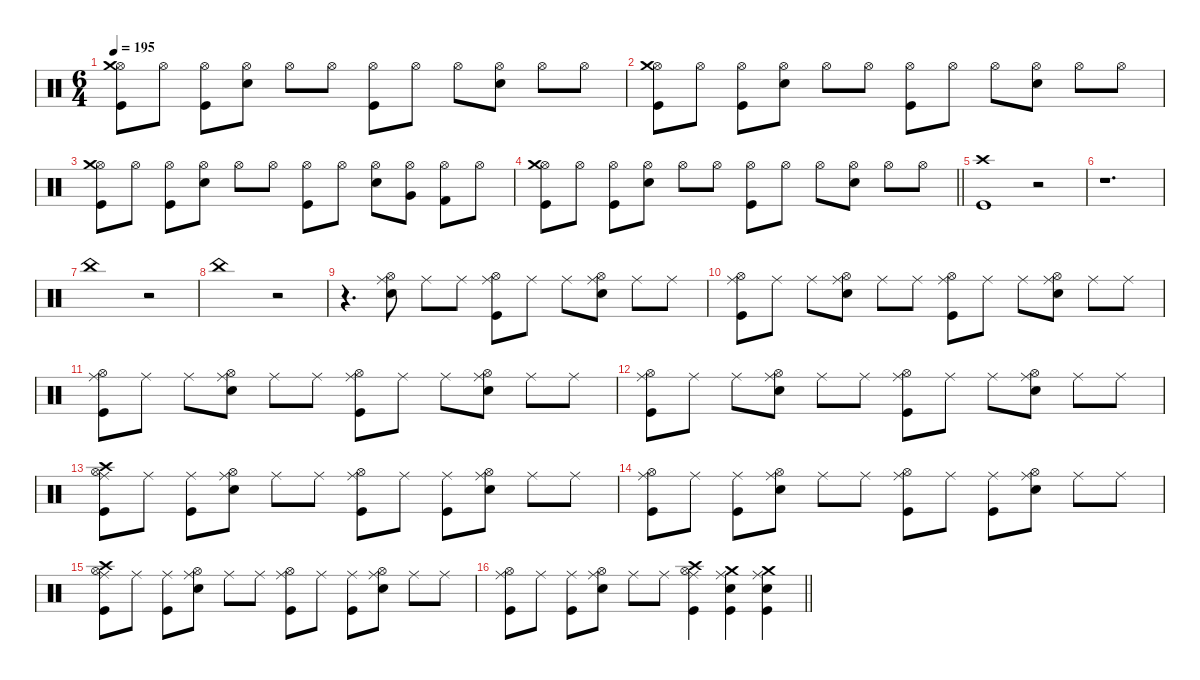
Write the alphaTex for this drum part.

\defaultSystemsLayout 4
\hideDynamics
\bracketExtendMode nobrackets
\singleTrackTrackNamePolicy hidden
\multiTrackTrackNamePolicy hidden
\firstSystemTrackNameMode fullname
\firstSystemTrackNameOrientation horizontal
\otherSystemsTrackNameOrientation horizontal
\track ("Percussion" "drm.") {defaultSystemsLayout 4 instrument percussion}
\staff {score}
\articulation defaults
\ts (6 4)
\tempo 195
\clef neutral
\ks c
("Hi-Hat (open)" "Crash medium (hit)" "Kick (hit)").8{dy f beam Down} "Hi-Hat (open)".8{beam Down} ("Hi-Hat (open)" "Kick (hit)").8{beam Down} ("Hi-Hat (open)" "Snare (hit) 2").8{beam Down} "Hi-Hat (open)".8{beam Down} "Hi-Hat (open)".8{beam Down} ("Hi-Hat (open)" "Kick (hit)").8{beam Down} "Hi-Hat (open)".8{beam Down} "Hi-Hat (open)".8{beam Down} ("Hi-Hat (open)" "Snare (hit) 2").8{beam Down} "Hi-Hat (open)".8{beam Down} "Hi-Hat (open)".8{beam Down} |
("Hi-Hat (open)" "Crash medium (hit)" "Kick (hit)").8{beam Down} "Hi-Hat (open)".8{beam Down} ("Hi-Hat (open)" "Kick (hit)").8{beam Down} ("Hi-Hat (open)" "Snare (hit) 2").8{beam Down} "Hi-Hat (open)".8{beam Down} "Hi-Hat (open)".8{beam Down} ("Hi-Hat (open)" "Kick (hit)").8{beam Down} "Hi-Hat (open)".8{beam Down} "Hi-Hat (open)".8{beam Down} ("Hi-Hat (open)" "Snare (hit) 2").8{beam Down} "Hi-Hat (open)".8{beam Down} "Hi-Hat (open)".8{beam Down} |
("Hi-Hat (open)" "Crash medium (hit)" "Kick (hit)").8{beam Down} "Hi-Hat (open)".8{beam Down} ("Hi-Hat (open)" "Kick (hit)").8{beam Down} ("Hi-Hat (open)" "Snare (hit) 2").8{beam Down} "Hi-Hat (open)".8{beam Down} "Hi-Hat (open)".8{beam Down} ("Hi-Hat (open)" "Kick (hit)").8{beam Down} "Hi-Hat (open)".8{beam Down} ("Hi-Hat (open)" "Snare (hit) 2").8{beam Down} ("Hi-Hat (open)" "Very Low Tom (hit)").8{beam Down} ("Hi-Hat (open)" "Kick (hit) 2").8{beam Down} "Hi-Hat (open)".8{beam Down} |
\barLineRight lightlight
("Hi-Hat (open)" "Crash medium (hit)" "Kick (hit)").8{beam Down} "Hi-Hat (open)".8{beam Down} ("Hi-Hat (open)" "Kick (hit)").8{beam Down} ("Hi-Hat (open)" "Snare (hit) 2").8{beam Down} "Hi-Hat (open)".8{beam Down} "Hi-Hat (open)".8{beam Down} ("Hi-Hat (open)" "Kick (hit)").8{beam Down} "Hi-Hat (open)".8{beam Down} "Hi-Hat (open)".8{beam Down} ("Hi-Hat (open)" "Snare (hit) 2").8{beam Down} "Hi-Hat (open)".8{beam Down} "Hi-Hat (open)".8{beam Down} |
("Crash high (hit)" "Kick (hit)").1{beam Down} r.2{beam Down} |
r.1{d beam Down} |
"China (hit)".1{beam Down} r.2{beam Down} |
"China (hit)".1{beam Down} r.2{beam Down} |
r.4{d beam Down} ("Hi-Hat (open)" "Ride (middle)" "Snare (hit) 2").8{beam Down} "Ride (middle)".8{beam Down} "Ride (middle)".8{beam Down} ("Hi-Hat (open)" "Ride (middle)" "Kick (hit)").8{beam Down} "Ride (middle)".8{beam Down} "Ride (middle)".8{beam Down} ("Hi-Hat (open)" "Ride (middle)" "Snare (hit) 2").8{beam Down} "Ride (middle)".8{beam Down} "Ride (middle)".8{beam Down} |
("Hi-Hat (open)" "Ride (middle)" "Kick (hit)").8{beam Down} "Ride (middle)".8{beam Down} "Ride (middle)".8{beam Down} ("Hi-Hat (open)" "Ride (middle)" "Snare (hit) 2").8{beam Down} "Ride (middle)".8{beam Down} "Ride (middle)".8{beam Down} ("Hi-Hat (open)" "Ride (middle)" "Kick (hit)").8{beam Down} "Ride (middle)".8{beam Down} "Ride (middle)".8{beam Down} ("Hi-Hat (open)" "Ride (middle)" "Snare (hit) 2").8{beam Down} "Ride (middle)".8{beam Down} "Ride (middle)".8{beam Down} |
("Hi-Hat (open)" "Ride (middle)" "Kick (hit)").8{beam Down} "Ride (middle)".8{beam Down} "Ride (middle)".8{beam Down} ("Hi-Hat (open)" "Ride (middle)" "Snare (hit) 2").8{beam Down} "Ride (middle)".8{beam Down} "Ride (middle)".8{beam Down} ("Hi-Hat (open)" "Ride (middle)" "Kick (hit)").8{beam Down} "Ride (middle)".8{beam Down} "Ride (middle)".8{beam Down} ("Hi-Hat (open)" "Ride (middle)" "Snare (hit) 2").8{beam Down} "Ride (middle)".8{beam Down} "Ride (middle)".8{beam Down} |
("Hi-Hat (open)" "Ride (middle)" "Kick (hit)").8{beam Down} "Ride (middle)".8{beam Down} "Ride (middle)".8{beam Down} ("Hi-Hat (open)" "Ride (middle)" "Snare (hit) 2").8{beam Down} "Ride (middle)".8{beam Down} "Ride (middle)".8{beam Down} ("Hi-Hat (open)" "Ride (middle)" "Kick (hit)").8{beam Down} "Ride (middle)".8{beam Down} "Ride (middle)".8{beam Down} ("Hi-Hat (open)" "Ride (middle)" "Snare (hit) 2").8{beam Down} "Ride (middle)".8{beam Down} "Ride (middle)".8{beam Down} |
("Hi-Hat (open)" "Ride (middle)" "Crash high (hit)" "Kick (hit)").8{beam Down} "Ride (middle)".8{beam Down} ("Ride (middle)" "Kick (hit)").8{beam Down} ("Hi-Hat (open)" "Ride (middle)" "Snare (hit) 2").8{beam Down} "Ride (middle)".8{beam Down} "Ride (middle)".8{beam Down} ("Hi-Hat (open)" "Ride (middle)" "Kick (hit)").8{beam Down} "Ride (middle)".8{beam Down} ("Ride (middle)" "Kick (hit)").8{beam Down} ("Hi-Hat (open)" "Ride (middle)" "Snare (hit) 2").8{beam Down} "Ride (middle)".8{beam Down} "Ride (middle)".8{beam Down} |
("Hi-Hat (open)" "Ride (middle)" "Kick (hit)").8{beam Down} "Ride (middle)".8{beam Down} ("Ride (middle)" "Kick (hit)").8{beam Down} ("Hi-Hat (open)" "Ride (middle)" "Snare (hit) 2").8{beam Down} "Ride (middle)".8{beam Down} "Ride (middle)".8{beam Down} ("Hi-Hat (open)" "Ride (middle)" "Kick (hit)").8{beam Down} "Ride (middle)".8{beam Down} ("Ride (middle)" "Kick (hit)").8{beam Down} ("Hi-Hat (open)" "Ride (middle)" "Snare (hit) 2").8{beam Down} "Ride (middle)".8{beam Down} "Ride (middle)".8{beam Down} |
("Hi-Hat (open)" "Ride (middle)" "Crash high (hit)" "Kick (hit)").8{beam Down} "Ride (middle)".8{beam Down} ("Ride (middle)" "Kick (hit)").8{beam Down} ("Hi-Hat (open)" "Ride (middle)" "Snare (hit) 2").8{beam Down} "Ride (middle)".8{beam Down} "Ride (middle)".8{beam Down} ("Hi-Hat (open)" "Ride (middle)" "Kick (hit)").8{beam Down} "Ride (middle)".8{beam Down} ("Ride (middle)" "Kick (hit)").8{beam Down} ("Hi-Hat (open)" "Ride (middle)" "Snare (hit) 2").8{beam Down} "Ride (middle)".8{beam Down} "Ride (middle)".8{beam Down} |
\barLineRight lightlight
("Hi-Hat (open)" "Ride (middle)" "Kick (hit)").8{beam Down} "Ride (middle)".8{beam Down} ("Ride (middle)" "Kick (hit)").8{beam Down} ("Hi-Hat (open)" "Ride (middle)" "Snare (hit) 2").8{beam Down} "Ride (middle)".8{beam Down} "Ride (middle)".8{beam Down} ("Hi-Hat (open)" "Ride (middle)" "Crash high (hit)" "Kick (hit)").4{beam Down} ("Crash medium (hit)" "Ride (middle)" "Snare (hit) 2" "Kick (hit)").4{beam Down} ("Crash medium (hit)" "Ride (middle)" "Snare (hit) 2" "Kick (hit)").4{beam Down}
